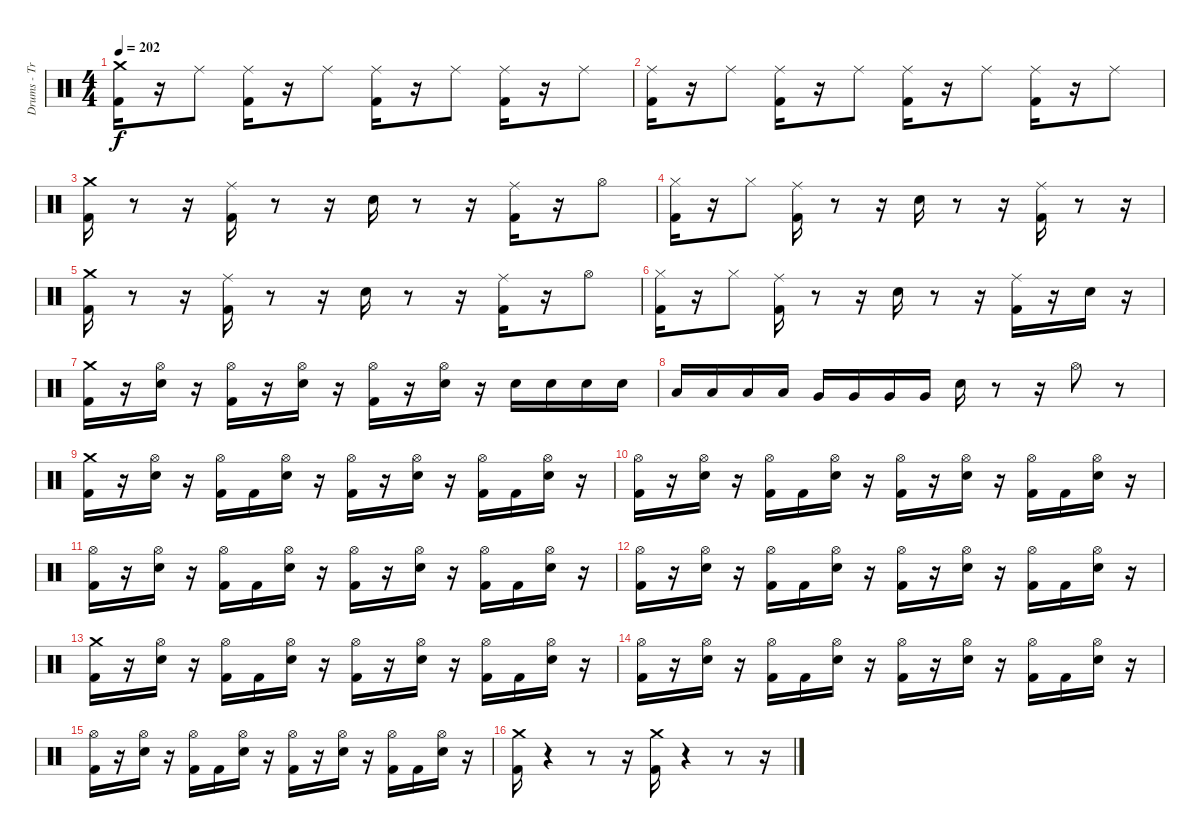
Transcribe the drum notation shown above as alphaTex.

\track ("Drums - Travis Barker" "Drums - Tr") {instrument percussion}
\staff {score}
\articulation defaults
\ts (4 4)
\tempo 202
\clef neutral
\ks c
("Kick (hit) 2" "Crash medium (hit)").16{dy f} r.16 "Ride (middle)".8 ("Kick (hit) 2" "Ride (middle)").16 r.16 "Ride (middle)".8 ("Kick (hit) 2" "Ride (middle)").16 r.16 "Ride (middle)".8 ("Kick (hit) 2" "Ride (middle)").16 r.16 "Ride (middle)".8 |
("Kick (hit) 2" "Ride (middle)").16 r.16 "Ride (middle)".8 ("Kick (hit) 2" "Ride (middle)").16 r.16 "Ride (middle)".8 ("Kick (hit) 2" "Ride (middle)").16 r.16 "Ride (middle)".8 ("Kick (hit) 2" "Ride (middle)").16 r.16 "Ride (middle)".8 |
("Crash medium (hit)" "Kick (hit) 2").16 r.8 r.16 ("Ride (middle)" "Kick (hit) 2").16 r.8 r.16 "Electric Snare (hit)".16 r.8 r.16 ("Ride (middle)" "Kick (hit) 2").16 r.16 "Hi-Hat (open)".8 |
("Kick (hit) 2" "Hi-Hat (closed)").16 r.16 "Hi-Hat (closed)".8 ("Ride (middle)" "Kick (hit) 2").16 r.8 r.16 "Electric Snare (hit)".16 r.8 r.16 ("Ride (middle)" "Kick (hit) 2").16 r.8 r.16 |
("Crash medium (hit)" "Kick (hit) 2").16 r.8 r.16 ("Ride (middle)" "Kick (hit) 2").16 r.8 r.16 "Electric Snare (hit)".16 r.8 r.16 ("Ride (middle)" "Kick (hit) 2").16 r.16 "Hi-Hat (open)".8 |
("Kick (hit) 2" "Hi-Hat (closed)").16 r.16 "Hi-Hat (closed)".8 ("Ride (middle)" "Kick (hit) 2").16 r.8 r.16 "Electric Snare (hit)".16 r.8 r.16 ("Ride (middle)" "Kick (hit) 2").16 r.16 "Electric Snare (hit)".16 r.16 |
("Kick (hit) 2" "Crash medium (hit)").16 r.16 ("Electric Snare (hit)" "Hi-Hat (open)").16 r.16 ("Kick (hit) 2" "Hi-Hat (open)").16 r.16 ("Electric Snare (hit)" "Hi-Hat (open)").16 r.16 ("Kick (hit) 2" "Hi-Hat (open)").16 r.16 ("Electric Snare (hit)" "Hi-Hat (open)").16 r.16 "Electric Snare (hit)".16 "Electric Snare (hit)".16 "Electric Snare (hit)".16 "Electric Snare (hit)".16 |
"Low Tom (hit)".16 "Low Tom (hit)".16 "Low Tom (hit)".16 "Low Tom (hit)".16 "Very Low Tom (hit)".16 "Very Low Tom (hit)".16 "Very Low Tom (hit)".16 "Very Low Tom (hit)".16 "Electric Snare (hit)".16 r.8 r.16 "Hi-Hat (open)".8 r.8 |
("Kick (hit) 2" "Crash medium (hit)").16 r.16 ("Electric Snare (hit)" "Hi-Hat (open)").16 r.16 ("Kick (hit) 2" "Hi-Hat (open)").16 "Kick (hit) 2".16 ("Electric Snare (hit)" "Hi-Hat (open)").16 r.16 ("Kick (hit) 2" "Hi-Hat (open)").16 r.16 ("Electric Snare (hit)" "Hi-Hat (open)").16 r.16 ("Kick (hit) 2" "Hi-Hat (open)").16 "Kick (hit) 2".16 ("Electric Snare (hit)" "Hi-Hat (open)").16 r.16 |
("Kick (hit) 2" "Hi-Hat (open)").16 r.16 ("Electric Snare (hit)" "Hi-Hat (open)").16 r.16 ("Kick (hit) 2" "Hi-Hat (open)").16 "Kick (hit) 2".16 ("Electric Snare (hit)" "Hi-Hat (open)").16 r.16 ("Kick (hit) 2" "Hi-Hat (open)").16 r.16 ("Electric Snare (hit)" "Hi-Hat (open)").16 r.16 ("Kick (hit) 2" "Hi-Hat (open)").16 "Kick (hit) 2".16 ("Electric Snare (hit)" "Hi-Hat (open)").16 r.16 |
("Kick (hit) 2" "Hi-Hat (open)").16 r.16 ("Electric Snare (hit)" "Hi-Hat (open)").16 r.16 ("Kick (hit) 2" "Hi-Hat (open)").16 "Kick (hit) 2".16 ("Electric Snare (hit)" "Hi-Hat (open)").16 r.16 ("Kick (hit) 2" "Hi-Hat (open)").16 r.16 ("Electric Snare (hit)" "Hi-Hat (open)").16 r.16 ("Kick (hit) 2" "Hi-Hat (open)").16 "Kick (hit) 2".16 ("Electric Snare (hit)" "Hi-Hat (open)").16 r.16 |
("Kick (hit) 2" "Hi-Hat (open)").16 r.16 ("Electric Snare (hit)" "Hi-Hat (open)").16 r.16 ("Kick (hit) 2" "Hi-Hat (open)").16 "Kick (hit) 2".16 ("Electric Snare (hit)" "Hi-Hat (open)").16 r.16 ("Kick (hit) 2" "Hi-Hat (open)").16 r.16 ("Electric Snare (hit)" "Hi-Hat (open)").16 r.16 ("Kick (hit) 2" "Hi-Hat (open)").16 "Kick (hit) 2".16 ("Electric Snare (hit)" "Hi-Hat (open)").16 r.16 |
("Kick (hit) 2" "Crash medium (hit)").16 r.16 ("Electric Snare (hit)" "Hi-Hat (open)").16 r.16 ("Kick (hit) 2" "Hi-Hat (open)").16 "Kick (hit) 2".16 ("Electric Snare (hit)" "Hi-Hat (open)").16 r.16 ("Kick (hit) 2" "Hi-Hat (open)").16 r.16 ("Electric Snare (hit)" "Hi-Hat (open)").16 r.16 ("Kick (hit) 2" "Hi-Hat (open)").16 "Kick (hit) 2".16 ("Electric Snare (hit)" "Hi-Hat (open)").16 r.16 |
("Kick (hit) 2" "Hi-Hat (open)").16 r.16 ("Electric Snare (hit)" "Hi-Hat (open)").16 r.16 ("Kick (hit) 2" "Hi-Hat (open)").16 "Kick (hit) 2".16 ("Electric Snare (hit)" "Hi-Hat (open)").16 r.16 ("Kick (hit) 2" "Hi-Hat (open)").16 r.16 ("Electric Snare (hit)" "Hi-Hat (open)").16 r.16 ("Kick (hit) 2" "Hi-Hat (open)").16 "Kick (hit) 2".16 ("Electric Snare (hit)" "Hi-Hat (open)").16 r.16 |
("Kick (hit) 2" "Hi-Hat (open)").16 r.16 ("Electric Snare (hit)" "Hi-Hat (open)").16 r.16 ("Kick (hit) 2" "Hi-Hat (open)").16 "Kick (hit) 2".16 ("Electric Snare (hit)" "Hi-Hat (open)").16 r.16 ("Kick (hit) 2" "Hi-Hat (open)").16 r.16 ("Electric Snare (hit)" "Hi-Hat (open)").16 r.16 ("Kick (hit) 2" "Hi-Hat (open)").16 "Kick (hit) 2".16 ("Electric Snare (hit)" "Hi-Hat (open)").16 r.16 |
("Kick (hit) 2" "Crash medium (hit)").16 r.4 r.8 r.16 ("Kick (hit) 2" "Crash medium (hit)").16 r.4 r.8 r.16
